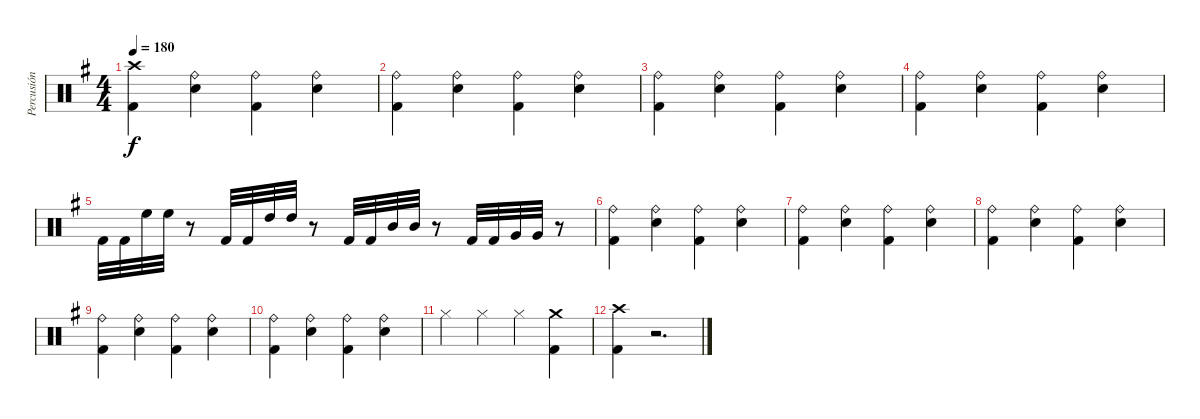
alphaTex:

\track ("Percusión" "Percusión") {instrument percussion}
\staff {score}
\articulation defaults
\ts (4 4)
\tempo 180
\clef neutral
\ks eminor
("Crash high (hit)" "Kick (hit) 2").4{dy f} ("Ride (bell)" "Snare (hit) 2").4 ("Ride (bell)" "Kick (hit) 2").4 ("Ride (bell)" "Snare (hit) 2").4 |
("Ride (bell)" "Kick (hit) 2").4 ("Ride (bell)" "Snare (hit) 2").4 ("Ride (bell)" "Kick (hit) 2").4 ("Ride (bell)" "Snare (hit) 2").4 |
("Ride (bell)" "Kick (hit) 2").4 ("Ride (bell)" "Snare (hit) 2").4 ("Ride (bell)" "Kick (hit) 2").4 ("Ride (bell)" "Snare (hit) 2").4 |
("Ride (bell)" "Kick (hit) 2").4 ("Ride (bell)" "Snare (hit) 2").4 ("Ride (bell)" "Kick (hit) 2").4 ("Ride (bell)" "Snare (hit) 2").4 |
"Kick (hit) 2".32 "Kick (hit) 2".32 "High Floor Tom (hit)".32 "High Floor Tom (hit)".32 r.8 "Kick (hit) 2".32 "Kick (hit) 2".32 "High Tom (hit)".32 "High Tom (hit)".32 r.8 "Kick (hit) 2".32 "Kick (hit) 2".32 "Mid Tom (hit)".32 "Mid Tom (hit)".32 r.8 "Kick (hit) 2".32 "Kick (hit) 2".32 "Very Low Tom (hit)".32 "Very Low Tom (hit)".32 r.8 |
("Ride (bell)" "Kick (hit) 2").4 ("Ride (bell)" "Snare (hit) 2").4 ("Ride (bell)" "Kick (hit) 2").4 ("Ride (bell)" "Snare (hit) 2").4 |
("Ride (bell)" "Kick (hit) 2").4 ("Ride (bell)" "Snare (hit) 2").4 ("Ride (bell)" "Kick (hit) 2").4 ("Ride (bell)" "Snare (hit) 2").4 |
("Ride (bell)" "Kick (hit) 2").4 ("Ride (bell)" "Snare (hit) 2").4 ("Ride (bell)" "Kick (hit) 2").4 ("Ride (bell)" "Snare (hit) 2").4 |
("Ride (bell)" "Kick (hit) 2").4 ("Ride (bell)" "Snare (hit) 2").4 ("Ride (bell)" "Kick (hit) 2").4 ("Ride (bell)" "Snare (hit) 2").4 |
("Ride (bell)" "Kick (hit) 2").4 ("Ride (bell)" "Snare (hit) 2").4 ("Ride (bell)" "Kick (hit) 2").4 ("Ride (bell)" "Snare (hit) 2").4 |
"Hi-Hat (closed)".4 "Hi-Hat (closed)".4 "Hi-Hat (closed)".4 ("Crash medium (hit)" "Kick (hit) 2").4 |
("Crash high (hit)" "Kick (hit) 2").4 r.2{d}
